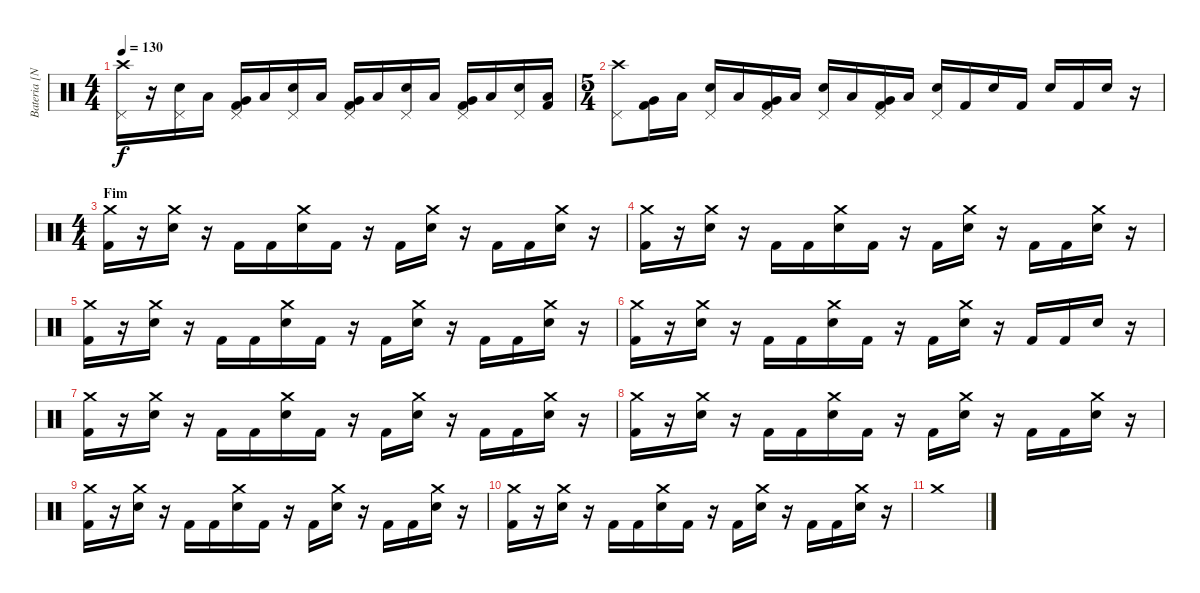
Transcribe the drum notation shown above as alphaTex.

\track ("Bateria [Nô]" "Bateria [N") {instrument percussion}
\staff {score}
\articulation defaults
\ts (4 4)
\tempo 130
\clef neutral
\ks c
("Crash high (hit)" "Pedal Hi-Hat (hit)").16{dy f} r.16 ("Pedal Hi-Hat (hit)" "Snare (hit) 2").16 "Low Floor Tom (hit)".16 ("Pedal Hi-Hat (hit)" "Very Low Tom (hit)" "Kick (hit) 2").16 "Low Floor Tom (hit)".16 ("Pedal Hi-Hat (hit)" "Snare (hit) 2").16 "Low Floor Tom (hit)".16 ("Pedal Hi-Hat (hit)" "Very Low Tom (hit)" "Kick (hit) 2").16 "Low Floor Tom (hit)".16 ("Pedal Hi-Hat (hit)" "Snare (hit) 2").16 "Low Floor Tom (hit)".16 ("Pedal Hi-Hat (hit)" "Very Low Tom (hit)" "Kick (hit) 2").16 "Low Floor Tom (hit)".16 ("Pedal Hi-Hat (hit)" "Snare (hit) 2").16 ("Low Floor Tom (hit)" "Kick (hit) 2").16 |
\ts (5 4)
("Crash high (hit)" "Pedal Hi-Hat (hit)").8 ("Very Low Tom (hit)" "Kick (hit) 2").16 "Low Floor Tom (hit)".16 ("Pedal Hi-Hat (hit)" "Snare (hit) 2").16 "Low Floor Tom (hit)".16 ("Pedal Hi-Hat (hit)" "Very Low Tom (hit)" "Kick (hit) 2").16 "Low Floor Tom (hit)".16 ("Pedal Hi-Hat (hit)" "Snare (hit) 2").16 "Low Floor Tom (hit)".16 ("Pedal Hi-Hat (hit)" "Very Low Tom (hit)" "Kick (hit) 2").16 "Low Floor Tom (hit)".16 ("Pedal Hi-Hat (hit)" "Snare (hit) 2").16 "Kick (hit) 2".16 "Snare (hit) 2".16 "Kick (hit) 2".16 "Snare (hit) 2".16 "Kick (hit) 2".16 "Snare (hit) 2".16 r.16 |
\ts (4 4)
\section ("" "Fim")
("Crash medium (hit)" "Kick (hit) 2").16 r.16 ("Crash medium (hit)" "Snare (hit) 2").16 r.16 "Kick (hit) 2".16 "Kick (hit) 2".16 ("Crash medium (hit)" "Snare (hit) 2").16 "Kick (hit) 2".16 r.16 "Kick (hit) 2".16 ("Crash medium (hit)" "Snare (hit) 2").16 r.16 "Kick (hit) 2".16 "Kick (hit) 2".16 ("Crash medium (hit)" "Snare (hit) 2").16 r.16 |
("Crash medium (hit)" "Kick (hit) 2").16 r.16 ("Crash medium (hit)" "Snare (hit) 2").16 r.16 "Kick (hit) 2".16 "Kick (hit) 2".16 ("Crash medium (hit)" "Snare (hit) 2").16 "Kick (hit) 2".16 r.16 "Kick (hit) 2".16 ("Crash medium (hit)" "Snare (hit) 2").16 r.16 "Kick (hit) 2".16 "Kick (hit) 2".16 ("Crash medium (hit)" "Snare (hit) 2").16 r.16 |
("Crash medium (hit)" "Kick (hit) 2").16 r.16 ("Crash medium (hit)" "Snare (hit) 2").16 r.16 "Kick (hit) 2".16 "Kick (hit) 2".16 ("Crash medium (hit)" "Snare (hit) 2").16 "Kick (hit) 2".16 r.16 "Kick (hit) 2".16 ("Crash medium (hit)" "Snare (hit) 2").16 r.16 "Kick (hit) 2".16 "Kick (hit) 2".16 ("Crash medium (hit)" "Snare (hit) 2").16 r.16 |
("Crash medium (hit)" "Kick (hit) 2").16 r.16 ("Crash medium (hit)" "Snare (hit) 2").16 r.16 "Kick (hit) 2".16 "Kick (hit) 2".16 ("Crash medium (hit)" "Snare (hit) 2").16 "Kick (hit) 2".16 r.16 "Kick (hit) 2".16 ("Crash medium (hit)" "Snare (hit) 2").16 r.16 "Kick (hit) 2".16 "Kick (hit) 2".16 "Snare (hit) 2".16 r.16 |
("Crash medium (hit)" "Kick (hit) 2").16 r.16 ("Crash medium (hit)" "Snare (hit) 2").16 r.16 "Kick (hit) 2".16 "Kick (hit) 2".16 ("Crash medium (hit)" "Snare (hit) 2").16 "Kick (hit) 2".16 r.16 "Kick (hit) 2".16 ("Crash medium (hit)" "Snare (hit) 2").16 r.16 "Kick (hit) 2".16 "Kick (hit) 2".16 ("Crash medium (hit)" "Snare (hit) 2").16 r.16 |
("Crash medium (hit)" "Kick (hit) 2").16 r.16 ("Crash medium (hit)" "Snare (hit) 2").16 r.16 "Kick (hit) 2".16 "Kick (hit) 2".16 ("Crash medium (hit)" "Snare (hit) 2").16 "Kick (hit) 2".16 r.16 "Kick (hit) 2".16 ("Crash medium (hit)" "Snare (hit) 2").16 r.16 "Kick (hit) 2".16 "Kick (hit) 2".16 ("Crash medium (hit)" "Snare (hit) 2").16 r.16 |
("Crash medium (hit)" "Kick (hit) 2").16 r.16 ("Crash medium (hit)" "Snare (hit) 2").16 r.16 "Kick (hit) 2".16 "Kick (hit) 2".16 ("Crash medium (hit)" "Snare (hit) 2").16 "Kick (hit) 2".16 r.16 "Kick (hit) 2".16 ("Crash medium (hit)" "Snare (hit) 2").16 r.16 "Kick (hit) 2".16 "Kick (hit) 2".16 ("Crash medium (hit)" "Snare (hit) 2").16 r.16 |
("Crash medium (hit)" "Kick (hit) 2").16 r.16 ("Crash medium (hit)" "Snare (hit) 2").16 r.16 "Kick (hit) 2".16 "Kick (hit) 2".16 ("Crash medium (hit)" "Snare (hit) 2").16 "Kick (hit) 2".16 r.16 "Kick (hit) 2".16 ("Crash medium (hit)" "Snare (hit) 2").16 r.16 "Kick (hit) 2".16 "Kick (hit) 2".16 ("Crash medium (hit)" "Snare (hit) 2").16 r.16 |
"Crash medium (hit)".1
